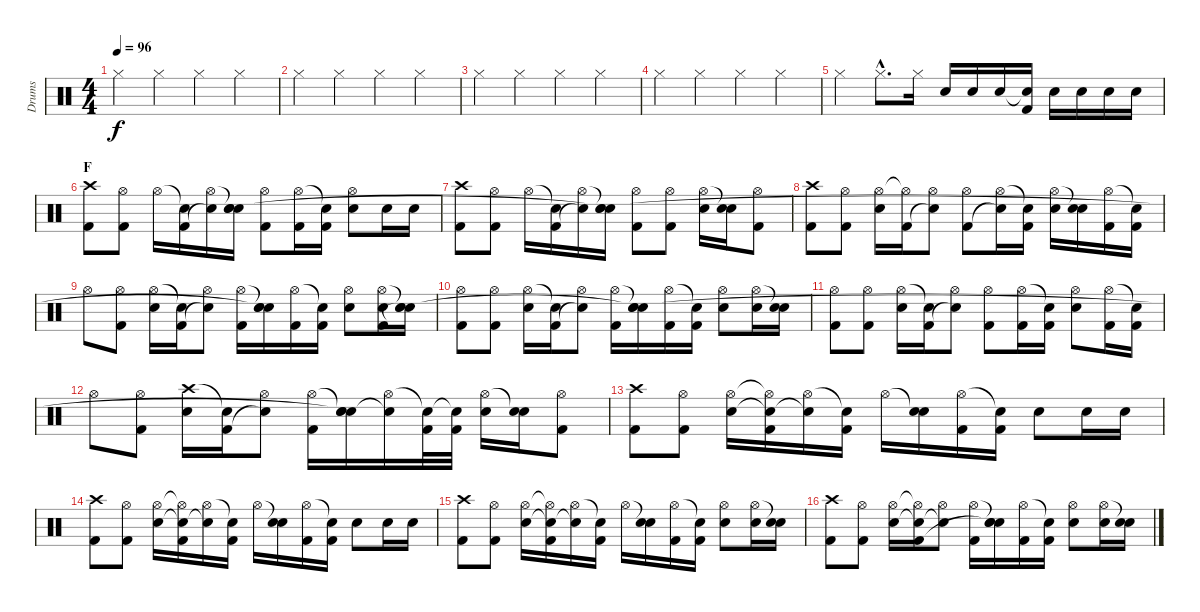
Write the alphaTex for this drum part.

\track ("Drums" "Drums") {instrument percussion}
\staff {score}
\articulation defaults
\ts (4 4)
\tempo 96
\clef neutral
\ks c "Hi-Hat (closed)".4{dy f} "Hi-Hat (closed)".4 "Hi-Hat (closed)".4 "Hi-Hat (closed)".4
|
"Hi-Hat (closed)".4 "Hi-Hat (closed)".4 "Hi-Hat (closed)".4 "Hi-Hat (closed)".4 |
"Hi-Hat (closed)".4 "Hi-Hat (closed)".4 "Hi-Hat (closed)".4 "Hi-Hat (closed)".4 |
"Hi-Hat (closed)".4 "Hi-Hat (closed)".4 "Hi-Hat (closed)".4 "Hi-Hat (closed)".4 |
"Hi-Hat (closed)".4 "Hi-Hat (closed)"{hac}.8{d} "Hi-Hat (closed)".16 "Snare (hit) 2".16 "Snare (hit) 2".16 "Snare (hit) 2".16 ("Snare (hit)"{t} "Kick (hit) 2").16 "Snare (hit) 2".16 "Snare (hit) 2".16 "Snare (hit) 2".16 "Snare (hit) 2".16 |
\section ("" "F")
("Crash high (hit)" "Kick (hit) 2").8 ("Hi-Hat (open)" "Kick (hit) 2").8 "Hi-Hat (open)".16 ("Snare (hit)"{t} "Kick (hit) 2").16 ("Hi-Hat (open)" "Snare (hit)"{t}).16 ("Snare (hit)"{t} "Snare (hit) 2" "Snare (hit)").16 ("Hi-Hat (open)" "Kick (hit) 2").8 ("Hi-Hat (open)" "Kick (hit) 2").16 ("Snare (hit)"{t} "Kick (hit) 2").16 ("Hi-Hat (open)" "Snare (hit) 2").8 "Snare (hit) 2".16 "Snare (hit) 2".16 |
("Crash high (hit)" "Kick (hit) 2").8 ("Hi-Hat (open)" "Kick (hit) 2").8 "Hi-Hat (open)".16 ("Snare (hit)"{t} "Kick (hit) 2").16 ("Hi-Hat (open)" "Snare (hit)"{t}).16 ("Snare (hit)"{t} "Snare (hit) 2" "Snare (hit)"{t}).16 ("Hi-Hat (open)" "Kick (hit) 2").8 ("Hi-Hat (open)" "Kick (hit) 2").8 ("Hi-Hat (open)" "Snare (hit) 2").16 ("Snare (hit)"{t} "Snare (hit) 2").16 ("Hi-Hat (open)" "Kick (hit) 2").8 |
("Crash high (hit)" "Kick (hit) 2").8 ("Hi-Hat (open)" "Kick (hit) 2").8 ("Hi-Hat (open)" "Snare (hit) 2").16 ("Hi-Hat (open)"{t} "Kick (hit) 2").16 ("Hi-Hat (open)" "Snare (hit)"{t}).8 ("Hi-Hat (open)" "Kick (hit) 2").8 ("Hi-Hat (open)" "Snare (hit)"{t}).16 ("Snare (hit)"{t} "Kick (hit) 2").16 ("Hi-Hat (open)" "Snare (hit) 2").16 ("Snare (hit)"{t} "Snare (hit) 2").16 ("Hi-Hat (open)" "Kick (hit) 2").16 ("Snare (hit)"{t} "Kick (hit) 2").16 |
"Hi-Hat (open)".8 ("Hi-Hat (open)" "Kick (hit) 2").8 ("Hi-Hat (open)" "Snare (hit) 2").16 ("Snare (hit)"{t} "Kick (hit) 2").16 ("Hi-Hat (open)" "Snare (hit)"{t}).8 ("Hi-Hat (open)" "Kick (hit) 2").16 ("Snare (hit)"{t} "Snare (hit) 2" "Snare (hit)"{t}).16 ("Hi-Hat (open)" "Kick (hit) 2").16 ("Snare (hit)"{t} "Kick (hit) 2").16 ("Hi-Hat (open)" "Snare (hit) 2").8 ("Hi-Hat (open)" "Snare (hit) 2" "Kick (hit) 2").16 ("Snare (hit)"{t} "Snare (hit) 2" "Snare (hit)"{t}).16 |
("Hi-Hat (open)" "Kick (hit) 2").8 ("Hi-Hat (open)" "Kick (hit) 2").8 ("Hi-Hat (open)" "Snare (hit) 2").16 ("Snare (hit)"{t} "Kick (hit) 2").16 ("Hi-Hat (open)" "Snare (hit)"{t}).8 ("Hi-Hat (open)" "Kick (hit) 2").16 ("Snare (hit)"{t} "Snare (hit) 2" "Snare (hit)"{t}).16 ("Hi-Hat (open)" "Kick (hit) 2").16 ("Snare (hit)"{t} "Kick (hit) 2").16 ("Hi-Hat (open)" "Snare (hit) 2").8 ("Hi-Hat (open)" "Snare (hit) 2").16 ("Snare (hit)"{t} "Snare (hit) 2").16 |
("Hi-Hat (open)" "Kick (hit) 2").8 ("Hi-Hat (open)" "Kick (hit) 2").8 ("Hi-Hat (open)" "Snare (hit) 2").16 ("Snare (hit)"{t} "Kick (hit) 2").16 ("Hi-Hat (open)" "Snare (hit)"{t}).8 ("Hi-Hat (open)" "Kick (hit) 2").8 ("Hi-Hat (open)" "Kick (hit) 2").16 ("Snare (hit)"{t} "Kick (hit) 2").16 ("Hi-Hat (open)" "Snare (hit) 2").8 ("Hi-Hat (open)" "Kick (hit) 2").16 ("Snare (hit)"{t} "Kick (hit) 2").16 |
"Hi-Hat (open)".8 ("Hi-Hat (open)" "Kick (hit) 2").8 ("Crash high (hit)" "Snare (hit) 2").16 ("Snare (hit)"{t} "Kick (hit) 2").16 ("Hi-Hat (open)" "Snare (hit)"{t}).8 ("Hi-Hat (open)" "Kick (hit) 2").16 ("Snare (hit)"{t} "Snare (hit) 2" "Snare (hit)"{t}).16 ("Hi-Hat (open)" "Snare (hit)"{t}).16 ("Snare (hit)"{t} "Kick (hit) 2").32 ("Snare (hit)"{t} "Kick (hit) 2").32 ("Hi-Hat (open)" "Snare (hit) 2").16 ("Snare (hit)"{t} "Snare (hit) 2").16 ("Hi-Hat (open)" "Kick (hit) 2").8 |
("Crash high (hit)" "Kick (hit) 2").8 ("Hi-Hat (open)" "Kick (hit) 2").8 ("Hi-Hat (open)" "Snare (hit) 2").16 ("Hi-Hat (open)"{t} "Snare (hit)"{t} "Kick (hit) 2").16 ("Hi-Hat (open)" "Snare (hit)"{t}).16 ("Snare (hit)"{t} "Kick (hit) 2").16 "Hi-Hat (open)".16 ("Snare (hit)"{t} "Snare (hit) 2").16 ("Hi-Hat (open)" "Kick (hit) 2").16 ("Snare (hit)"{t} "Kick (hit) 2").16 "Snare (hit) 2".8 "Snare (hit) 2".16 "Snare (hit) 2".16 |
("Crash high (hit)" "Kick (hit) 2").8 ("Hi-Hat (open)" "Kick (hit) 2").8 ("Hi-Hat (open)" "Snare (hit) 2").16 ("Hi-Hat (open)"{t} "Snare (hit)"{t} "Kick (hit) 2").16 ("Hi-Hat (open)" "Snare (hit)"{t}).16 ("Snare (hit)"{t} "Kick (hit) 2").16 "Hi-Hat (open)".16 ("Snare (hit)"{t} "Snare (hit) 2").16 ("Hi-Hat (open)" "Kick (hit) 2").16 ("Snare (hit)"{t} "Kick (hit) 2").16 "Snare (hit) 2".8 "Snare (hit) 2".16 "Snare (hit) 2".16 |
("Crash high (hit)" "Kick (hit) 2").8 ("Hi-Hat (open)" "Kick (hit) 2").8 ("Hi-Hat (open)" "Snare (hit) 2").16 ("Hi-Hat (open)"{t} "Snare (hit)"{t} "Kick (hit) 2").16 ("Hi-Hat (open)" "Snare (hit)"{t}).16 ("Snare (hit)"{t} "Kick (hit) 2").16 "Hi-Hat (open)".16 ("Snare (hit)"{t} "Snare (hit) 2").16 ("Hi-Hat (open)" "Kick (hit) 2").16 ("Snare (hit)"{t} "Kick (hit) 2").16 ("Hi-Hat (open)" "Snare (hit) 2").8 ("Hi-Hat (open)" "Snare (hit) 2").16 ("Snare (hit)"{t} "Snare (hit) 2").16 |
("Crash high (hit)" "Kick (hit) 2").8 ("Hi-Hat (open)" "Kick (hit) 2").8 ("Hi-Hat (open)" "Snare (hit) 2").16 ("Hi-Hat (open)"{t} "Snare (hit)"{t} "Kick (hit) 2").16 ("Hi-Hat (open)" "Snare (hit)"{t}).8 ("Hi-Hat (open)" "Kick (hit) 2").16 ("Snare (hit)"{t} "Snare (hit) 2" "Snare (hit)"{t}).16 ("Hi-Hat (open)" "Kick (hit) 2").16 ("Snare (hit)"{t} "Kick (hit) 2").16 ("Hi-Hat (open)" "Snare (hit) 2").8 ("Hi-Hat (open)" "Snare (hit) 2").16 ("Snare (hit)"{t} "Snare (hit) 2").16
